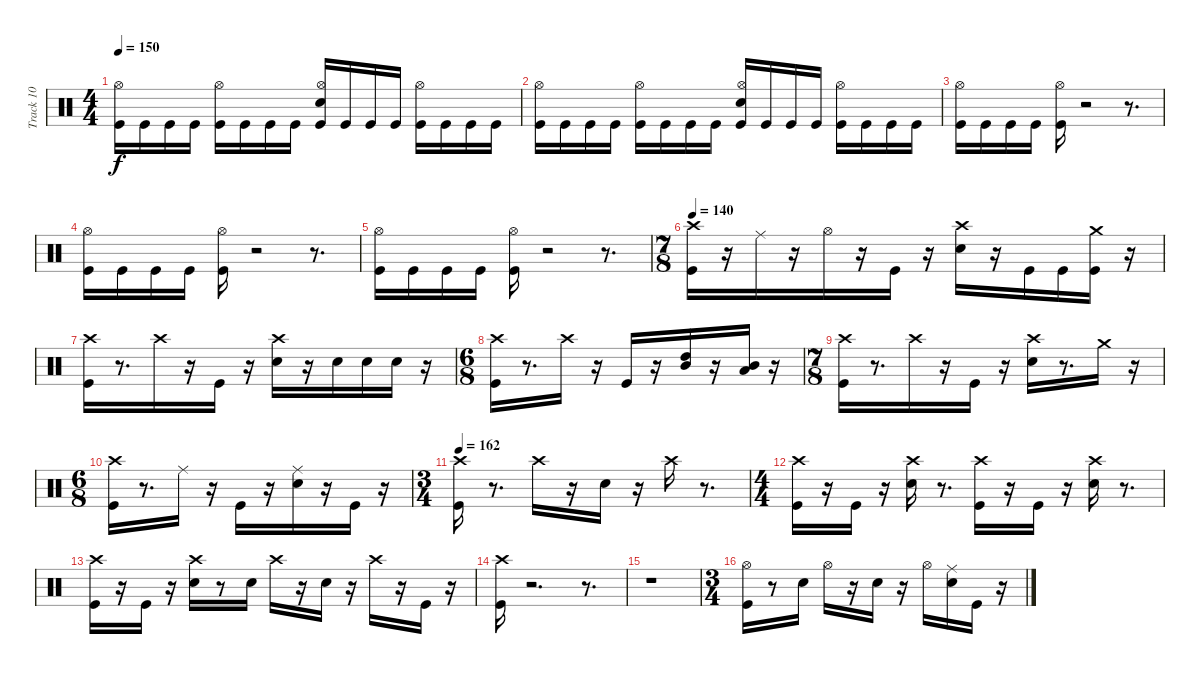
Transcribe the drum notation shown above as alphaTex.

\track ("Track 10" "Track 10") {instrument percussion}
\staff {score}
\articulation defaults
\ts (4 4)
\tempo 150
\clef neutral
\ks c
("Kick (hit)" "Hi-Hat (open)").16{dy f} "Kick (hit)".16 "Kick (hit)".16 "Kick (hit)".16 ("Kick (hit)" "Hi-Hat (open)").16 "Kick (hit)".16 "Kick (hit)".16 "Kick (hit)".16 ("Kick (hit)" "Snare (hit) 2" "Hi-Hat (open)").16 "Kick (hit)".16 "Kick (hit)".16 "Kick (hit)".16 ("Kick (hit)" "Hi-Hat (open)").16 "Kick (hit)".16 "Kick (hit)".16 "Kick (hit)".16 |
("Kick (hit)" "Hi-Hat (open)").16 "Kick (hit)".16 "Kick (hit)".16 "Kick (hit)".16 ("Kick (hit)" "Hi-Hat (open)").16 "Kick (hit)".16 "Kick (hit)".16 "Kick (hit)".16 ("Kick (hit)" "Snare (hit) 2" "Hi-Hat (open)").16 "Kick (hit)".16 "Kick (hit)".16 "Kick (hit)".16 ("Kick (hit)" "Hi-Hat (open)").16 "Kick (hit)".16 "Kick (hit)".16 "Kick (hit)".16 |
("Kick (hit)" "Hi-Hat (open)").16 "Kick (hit)".16 "Kick (hit)".16 "Kick (hit)".16 ("Kick (hit)" "Hi-Hat (open)").16 r.2 r.8{d} |
("Kick (hit)" "Hi-Hat (open)").16 "Kick (hit)".16 "Kick (hit)".16 "Kick (hit)".16 ("Kick (hit)" "Hi-Hat (open)").16 r.2 r.8{d} |
("Kick (hit)" "Hi-Hat (open)").16 "Kick (hit)".16 "Kick (hit)".16 "Kick (hit)".16 ("Kick (hit)" "Hi-Hat (open)").16 r.2 r.8{d} |
\ts (7 8)
\tempo 140
("Kick (hit)" "Crash high (hit)").16 r.16 "Ride (middle)".16 r.16 "Hi-Hat (open)".16 r.16 "Kick (hit)".16 r.16 ("Snare (hit) 2" "Crash high (hit)").16 r.16 "Kick (hit)".16 "Kick (hit)".16 ("Kick (hit)" "Crash medium (hit)").16 r.16 |
("Kick (hit)" "Crash high (hit)").16 r.8{d} "Crash high (hit)".16 r.16 "Kick (hit)".16 r.16 ("Snare (hit) 2" "Crash high (hit)").16 r.16 "Snare (hit) 2".16 "Snare (hit) 2".16 "Snare (hit) 2".16 r.16 |
\ts (6 8)
("Kick (hit)" "Crash high (hit)").16 r.8{d} "Crash high (hit)".16 r.16 "Kick (hit)".16 r.16 ("Mid Tom (hit)" "High Tom (hit)").16 r.16 ("Low Floor Tom (hit)" "Mid Tom (hit)").16 r.16 |
\ts (7 8)
("Kick (hit)" "Crash high (hit)").16 r.8{d} "Crash high (hit)".16 r.16 "Kick (hit)".16 r.16 ("Snare (hit) 2" "Crash high (hit)").16 r.8{d} "Crash medium (hit)".16 r.16 |
\ts (6 8)
("Kick (hit)" "Crash high (hit)").16 r.8{d} "Ride (middle)".16 r.16 "Kick (hit)".16 r.16 ("Snare (hit) 2" "Ride (middle)").16 r.16 "Kick (hit)".16 r.16 |
\ts (3 4)
\tempo 162
("Kick (hit)" "Crash high (hit)").16 r.8{d} "Crash high (hit)".16 r.16 "Snare (hit) 2".16 r.16 "Crash high (hit)".16 r.8{d} |
\ts (4 4)
("Kick (hit)" "Crash high (hit)").16 r.16 "Kick (hit)".16 r.16 ("Snare (hit) 2" "Crash high (hit)").16 r.8{d} ("Kick (hit)" "Crash high (hit)").16 r.16 "Kick (hit)".16 r.16 ("Snare (hit) 2" "Crash high (hit)").16 r.8{d} |
("Kick (hit)" "Crash high (hit)").16 r.16 "Kick (hit)".16 r.16 ("Snare (hit) 2" "Crash high (hit)").16 r.8 "Snare (hit) 2".16 "Crash high (hit)".16 r.16 "Snare (hit) 2".16 r.16 "Crash high (hit)".16 r.16 "Kick (hit)".16 r.16 |
("Kick (hit)" "Crash high (hit)").16 r.2{d} r.8{d} |
r.1 |
\ts (3 4)
("Kick (hit)" "Hi-Hat (open)").16 r.8 "Snare (hit) 2".16 "Hi-Hat (open)".16 r.16 "Snare (hit) 2".16 r.16 "Hi-Hat (open)".16 ("Snare (hit) 2" "Ride (middle)").16 "Kick (hit)".16 r.16
